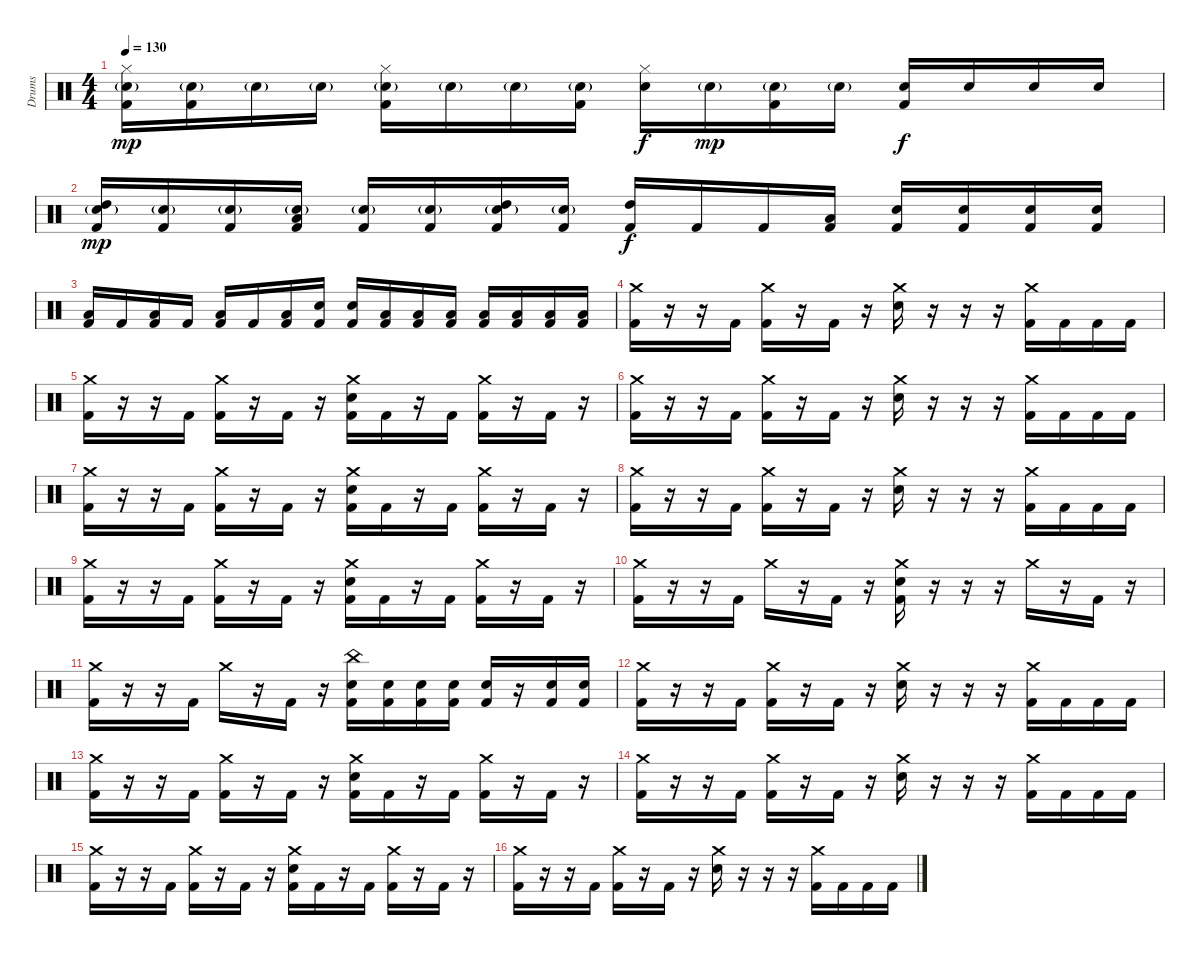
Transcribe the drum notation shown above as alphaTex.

\track ("Drums" "Drums") {instrument percussion}
\staff {score}
\articulation defaults
\ts (4 4)
\tempo 130
\clef neutral
\ks c
("Hi-Hat (closed)" "Electric Snare (hit)"{g} "Kick (hit) 2").16{dy mp} ("Electric Snare (hit)"{g} "Kick (hit) 2").16 "Electric Snare (hit)"{g}.16 "Electric Snare (hit)"{g}.16 ("Hi-Hat (closed)" "Electric Snare (hit)"{g} "Kick (hit) 2").16 "Electric Snare (hit)"{g}.16 "Electric Snare (hit)"{g}.16 ("Electric Snare (hit)"{g} "Kick (hit) 2").16 ("Hi-Hat (closed)" "Electric Snare (hit)").16{dy f} "Electric Snare (hit)"{g}.16{dy mp} ("Electric Snare (hit)"{g} "Kick (hit) 2").16 "Electric Snare (hit)"{g}.16 ("Electric Snare (hit)" "Kick (hit) 2").16{dy f} "Electric Snare (hit)".16 "Electric Snare (hit)".16 "Electric Snare (hit)".16 |
("High Tom (hit)" "Electric Snare (hit)"{g} "Kick (hit) 2").16{dy mp} ("Electric Snare (hit)"{g} "Kick (hit) 2").16 ("Electric Snare (hit)"{g} "Kick (hit) 2").16 ("Low Tom (hit)" "Electric Snare (hit)"{g} "Kick (hit) 2").16 ("Electric Snare (hit)"{g} "Kick (hit) 2").16 ("Electric Snare (hit)"{g} "Kick (hit) 2").16 ("High Tom (hit)" "Electric Snare (hit)"{g} "Kick (hit) 2").16 ("Electric Snare (hit)"{g} "Kick (hit) 2").16 ("High Tom (hit)" "Kick (hit) 2").16{dy f} "Kick (hit) 2".16 "Kick (hit) 2".16 ("Low Tom (hit)" "Kick (hit) 2").16 ("Electric Snare (hit)" "Kick (hit) 2").16 ("Electric Snare (hit)" "Kick (hit) 2").16 ("Electric Snare (hit)" "Kick (hit) 2").16 ("Electric Snare (hit)" "Kick (hit) 2").16 |
("Low Tom (hit)" "Kick (hit) 2").16 "Kick (hit) 2".16 ("Low Tom (hit)" "Kick (hit) 2").16 "Kick (hit) 2".16 ("Low Tom (hit)" "Kick (hit) 2").16 "Kick (hit) 2".16 ("Low Tom (hit)" "Kick (hit) 2").16 ("Electric Snare (hit)" "Kick (hit) 2").16 ("Electric Snare (hit)" "Kick (hit) 2").16 ("Low Tom (hit)" "Kick (hit) 2").16 ("Low Tom (hit)" "Kick (hit) 2").16 ("Low Tom (hit)" "Kick (hit) 2").16 ("Low Tom (hit)" "Kick (hit) 2").16 ("Low Tom (hit)" "Kick (hit) 2").16 ("Low Tom (hit)" "Kick (hit) 2").16 ("Low Tom (hit)" "Kick (hit) 2").16 |
("Crash medium (hit)" "Kick (hit) 2").16 r.16 r.16 "Kick (hit) 2".16 ("Crash medium (hit)" "Kick (hit) 2").16 r.16 "Kick (hit) 2".16 r.16 ("Crash medium (hit)" "Electric Snare (hit)").16 r.16 r.16 r.16 ("Crash medium (hit)" "Kick (hit) 2").16 "Kick (hit) 2".16 "Kick (hit) 2".16 "Kick (hit) 2".16 |
("Crash medium (hit)" "Kick (hit) 2").16 r.16 r.16 "Kick (hit) 2".16 ("Crash medium (hit)" "Kick (hit) 2").16 r.16 "Kick (hit) 2".16 r.16 ("Crash medium (hit)" "Electric Snare (hit)" "Kick (hit) 2").16 "Kick (hit) 2".16 r.16 "Kick (hit) 2".16 ("Crash medium (hit)" "Kick (hit) 2").16 r.16 "Kick (hit) 2".16 r.16 |
("Crash medium (hit)" "Kick (hit) 2").16 r.16 r.16 "Kick (hit) 2".16 ("Crash medium (hit)" "Kick (hit) 2").16 r.16 "Kick (hit) 2".16 r.16 ("Crash medium (hit)" "Electric Snare (hit)").16 r.16 r.16 r.16 ("Crash medium (hit)" "Kick (hit) 2").16 "Kick (hit) 2".16 "Kick (hit) 2".16 "Kick (hit) 2".16 |
("Crash medium (hit)" "Kick (hit) 2").16 r.16 r.16 "Kick (hit) 2".16 ("Crash medium (hit)" "Kick (hit) 2").16 r.16 "Kick (hit) 2".16 r.16 ("Crash medium (hit)" "Electric Snare (hit)" "Kick (hit) 2").16 "Kick (hit) 2".16 r.16 "Kick (hit) 2".16 ("Crash medium (hit)" "Kick (hit) 2").16 r.16 "Kick (hit) 2".16 r.16 |
("Crash medium (hit)" "Kick (hit) 2").16 r.16 r.16 "Kick (hit) 2".16 ("Crash medium (hit)" "Kick (hit) 2").16 r.16 "Kick (hit) 2".16 r.16 ("Crash medium (hit)" "Electric Snare (hit)").16 r.16 r.16 r.16 ("Crash medium (hit)" "Kick (hit) 2").16 "Kick (hit) 2".16 "Kick (hit) 2".16 "Kick (hit) 2".16 |
("Crash medium (hit)" "Kick (hit) 2").16 r.16 r.16 "Kick (hit) 2".16 ("Crash medium (hit)" "Kick (hit) 2").16 r.16 "Kick (hit) 2".16 r.16 ("Crash medium (hit)" "Electric Snare (hit)" "Kick (hit) 2").16 "Kick (hit) 2".16 r.16 "Kick (hit) 2".16 ("Crash medium (hit)" "Kick (hit) 2").16 r.16 "Kick (hit) 2".16 r.16 |
("Crash medium (hit)" "Kick (hit) 2").16 r.16 r.16 "Kick (hit) 2".16 "Crash medium (hit)".16 r.16 "Kick (hit) 2".16 r.16 ("Crash medium (hit)" "Electric Snare (hit)" "Kick (hit) 2").16 r.16 r.16 r.16 "Crash medium (hit)".16 r.16 "Kick (hit) 2".16 r.16 |
("Crash medium (hit)" "Kick (hit) 2").16 r.16 r.16 "Kick (hit) 2".16 "Crash medium (hit)".16 r.16 "Kick (hit) 2".16 r.16 ("China (hit)" "Electric Snare (hit)" "Kick (hit) 2").16 ("Electric Snare (hit)" "Kick (hit) 2").16 ("Electric Snare (hit)" "Kick (hit) 2").16 ("Electric Snare (hit)" "Kick (hit) 2").16 ("Electric Snare (hit)" "Kick (hit) 2").16 r.16 ("Electric Snare (hit)" "Kick (hit) 2").16 ("Electric Snare (hit)" "Kick (hit) 2").16 |
("Crash medium (hit)" "Kick (hit) 2").16 r.16 r.16 "Kick (hit) 2".16 ("Crash medium (hit)" "Kick (hit) 2").16 r.16 "Kick (hit) 2".16 r.16 ("Crash medium (hit)" "Electric Snare (hit)").16 r.16 r.16 r.16 ("Crash medium (hit)" "Kick (hit) 2").16 "Kick (hit) 2".16 "Kick (hit) 2".16 "Kick (hit) 2".16 |
("Crash medium (hit)" "Kick (hit) 2").16 r.16 r.16 "Kick (hit) 2".16 ("Crash medium (hit)" "Kick (hit) 2").16 r.16 "Kick (hit) 2".16 r.16 ("Crash medium (hit)" "Electric Snare (hit)" "Kick (hit) 2").16 "Kick (hit) 2".16 r.16 "Kick (hit) 2".16 ("Crash medium (hit)" "Kick (hit) 2").16 r.16 "Kick (hit) 2".16 r.16 |
("Crash medium (hit)" "Kick (hit) 2").16 r.16 r.16 "Kick (hit) 2".16 ("Crash medium (hit)" "Kick (hit) 2").16 r.16 "Kick (hit) 2".16 r.16 ("Crash medium (hit)" "Electric Snare (hit)").16 r.16 r.16 r.16 ("Crash medium (hit)" "Kick (hit) 2").16 "Kick (hit) 2".16 "Kick (hit) 2".16 "Kick (hit) 2".16 |
("Crash medium (hit)" "Kick (hit) 2").16 r.16 r.16 "Kick (hit) 2".16 ("Crash medium (hit)" "Kick (hit) 2").16 r.16 "Kick (hit) 2".16 r.16 ("Crash medium (hit)" "Electric Snare (hit)" "Kick (hit) 2").16 "Kick (hit) 2".16 r.16 "Kick (hit) 2".16 ("Crash medium (hit)" "Kick (hit) 2").16 r.16 "Kick (hit) 2".16 r.16 |
("Crash medium (hit)" "Kick (hit) 2").16 r.16 r.16 "Kick (hit) 2".16 ("Crash medium (hit)" "Kick (hit) 2").16 r.16 "Kick (hit) 2".16 r.16 ("Crash medium (hit)" "Electric Snare (hit)").16 r.16 r.16 r.16 ("Crash medium (hit)" "Kick (hit) 2").16 "Kick (hit) 2".16 "Kick (hit) 2".16 "Kick (hit) 2".16
